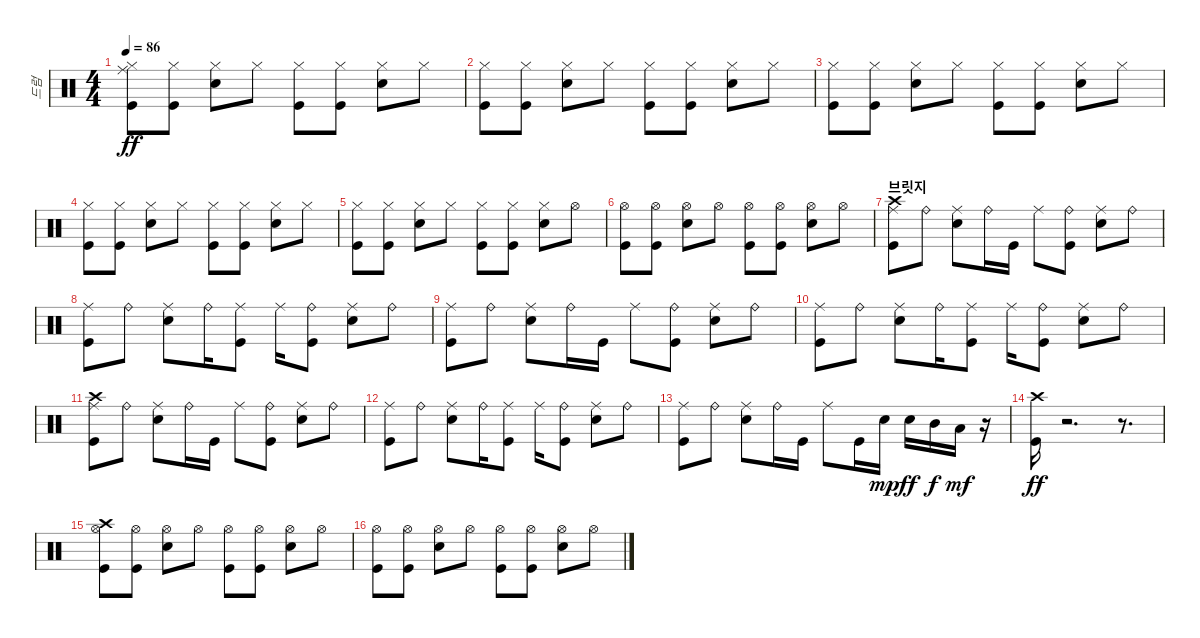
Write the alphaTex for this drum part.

\track ("드럼" "드럼") {instrument percussion}
\staff {score}
\articulation defaults
\ts (4 4)
\tempo 86
\clef neutral
\ks c
("Hi-Hat (closed)" "Ride (middle)" "Kick (hit)").8{dy ff} ("Hi-Hat (closed)" "Kick (hit)").8 ("Hi-Hat (closed)" "Electric Snare (hit)").8 "Hi-Hat (closed)".8 ("Hi-Hat (closed)" "Kick (hit)").8 ("Hi-Hat (closed)" "Kick (hit)").8 ("Hi-Hat (closed)" "Electric Snare (hit)").8 "Hi-Hat (closed)".8 |
("Hi-Hat (closed)" "Kick (hit)").8 ("Hi-Hat (closed)" "Kick (hit)").8 ("Hi-Hat (closed)" "Electric Snare (hit)").8 "Hi-Hat (closed)".8 ("Hi-Hat (closed)" "Kick (hit)").8 ("Hi-Hat (closed)" "Kick (hit)").8 ("Hi-Hat (closed)" "Electric Snare (hit)").8 "Hi-Hat (closed)".8 |
("Hi-Hat (closed)" "Kick (hit)").8 ("Hi-Hat (closed)" "Kick (hit)").8 ("Hi-Hat (closed)" "Electric Snare (hit)").8 "Hi-Hat (closed)".8 ("Hi-Hat (closed)" "Kick (hit)").8 ("Hi-Hat (closed)" "Kick (hit)").8 ("Hi-Hat (closed)" "Electric Snare (hit)").8 "Hi-Hat (closed)".8 |
("Hi-Hat (closed)" "Kick (hit)").8 ("Hi-Hat (closed)" "Kick (hit)").8 ("Hi-Hat (closed)" "Electric Snare (hit)").8 "Hi-Hat (closed)".8 ("Hi-Hat (closed)" "Kick (hit)").8 ("Hi-Hat (closed)" "Kick (hit)").8 ("Hi-Hat (closed)" "Electric Snare (hit)").8 "Hi-Hat (closed)".8 |
("Hi-Hat (closed)" "Kick (hit)").8 ("Hi-Hat (closed)" "Kick (hit)").8 ("Hi-Hat (closed)" "Electric Snare (hit)").8 "Hi-Hat (closed)".8 ("Hi-Hat (closed)" "Kick (hit)").8 ("Hi-Hat (closed)" "Kick (hit)").8 ("Hi-Hat (closed)" "Electric Snare (hit)").8 "Hi-Hat (open)".8 |
("Kick (hit)" "Hi-Hat (open)").8 ("Hi-Hat (open)" "Kick (hit)").8 ("Hi-Hat (open)" "Electric Snare (hit)").8 "Hi-Hat (open)".8 ("Hi-Hat (open)" "Kick (hit)").8 ("Kick (hit)" "Hi-Hat (open)").8 ("Electric Snare (hit)" "Hi-Hat (open)").8 "Hi-Hat (open)".8 |
\section ("" "브릿지")
("Crash high (hit)" "Ride (middle)" "Kick (hit)").8 "Ride (bell)".8 ("Ride (middle)" "Electric Snare (hit)").8 "Ride (bell)".16 "Kick (hit)".16 "Ride (middle)".8 ("Kick (hit)" "Ride (bell)").8 ("Electric Snare (hit)" "Ride (middle)").8 "Ride (bell)".8 |
("Ride (middle)" "Kick (hit)").8 "Ride (bell)".8 ("Ride (middle)" "Electric Snare (hit)").8 "Ride (bell)".16 ("Kick (hit)" "Ride (middle)").8 "Ride (middle)".16 ("Kick (hit)" "Ride (bell)").8 ("Electric Snare (hit)" "Ride (middle)").8 "Ride (bell)".8 |
("Ride (middle)" "Kick (hit)").8 "Ride (bell)".8 ("Ride (middle)" "Electric Snare (hit)").8 "Ride (bell)".16 "Kick (hit)".16 "Ride (middle)".8 ("Kick (hit)" "Ride (bell)").8 ("Electric Snare (hit)" "Ride (middle)").8 "Ride (bell)".8 |
("Ride (middle)" "Kick (hit)").8 "Ride (bell)".8 ("Ride (middle)" "Electric Snare (hit)").8 "Ride (bell)".16 ("Kick (hit)" "Ride (middle)").8 "Ride (middle)".16 ("Kick (hit)" "Ride (bell)").8 ("Electric Snare (hit)" "Ride (middle)").8 "Ride (bell)".8 |
("Ride (middle)" "Kick (hit)" "Crash high (hit)").8 "Ride (bell)".8 ("Ride (middle)" "Electric Snare (hit)").8 "Ride (bell)".16 "Kick (hit)".16 "Ride (middle)".8 ("Kick (hit)" "Ride (bell)").8 ("Electric Snare (hit)" "Ride (middle)").8 "Ride (bell)".8 |
("Ride (middle)" "Kick (hit)").8 "Ride (bell)".8 ("Ride (middle)" "Electric Snare (hit)").8 "Ride (bell)".16 ("Kick (hit)" "Ride (middle)").8 "Ride (middle)".16 ("Kick (hit)" "Ride (bell)").8 ("Electric Snare (hit)" "Ride (middle)").8 "Ride (bell)".8 |
("Ride (middle)" "Kick (hit)").8 "Ride (bell)".8 ("Ride (middle)" "Electric Snare (hit)").8 "Ride (bell)".16 "Kick (hit)".16 "Ride (middle)".8 "Kick (hit)".16 "Electric Snare (hit)".16{dy mp} "Electric Snare (hit)".16{dy ff} "Mid Tom (hit)".16{dy f} "Low Tom (hit)".16{dy mf} r.16 |
("Crash high (hit)" "Kick (hit)").16{dy ff} r.2{d} r.8{d} |
("Crash high (hit)" "Kick (hit)" "Hi-Hat (open)").8 ("Hi-Hat (open)" "Kick (hit)").8 ("Electric Snare (hit)" "Hi-Hat (open)").8 "Hi-Hat (open)".8 ("Hi-Hat (open)" "Kick (hit)").8 ("Hi-Hat (open)" "Kick (hit)").8 ("Hi-Hat (open)" "Electric Snare (hit)").8 "Hi-Hat (open)".8 |
("Kick (hit)" "Hi-Hat (open)").8 ("Kick (hit)" "Hi-Hat (open)").8 ("Hi-Hat (open)" "Electric Snare (hit)").8 "Hi-Hat (open)".8 ("Hi-Hat (open)" "Kick (hit)").8 ("Hi-Hat (open)" "Kick (hit)").8 ("Electric Snare (hit)" "Hi-Hat (open)").8 "Hi-Hat (open)".8
